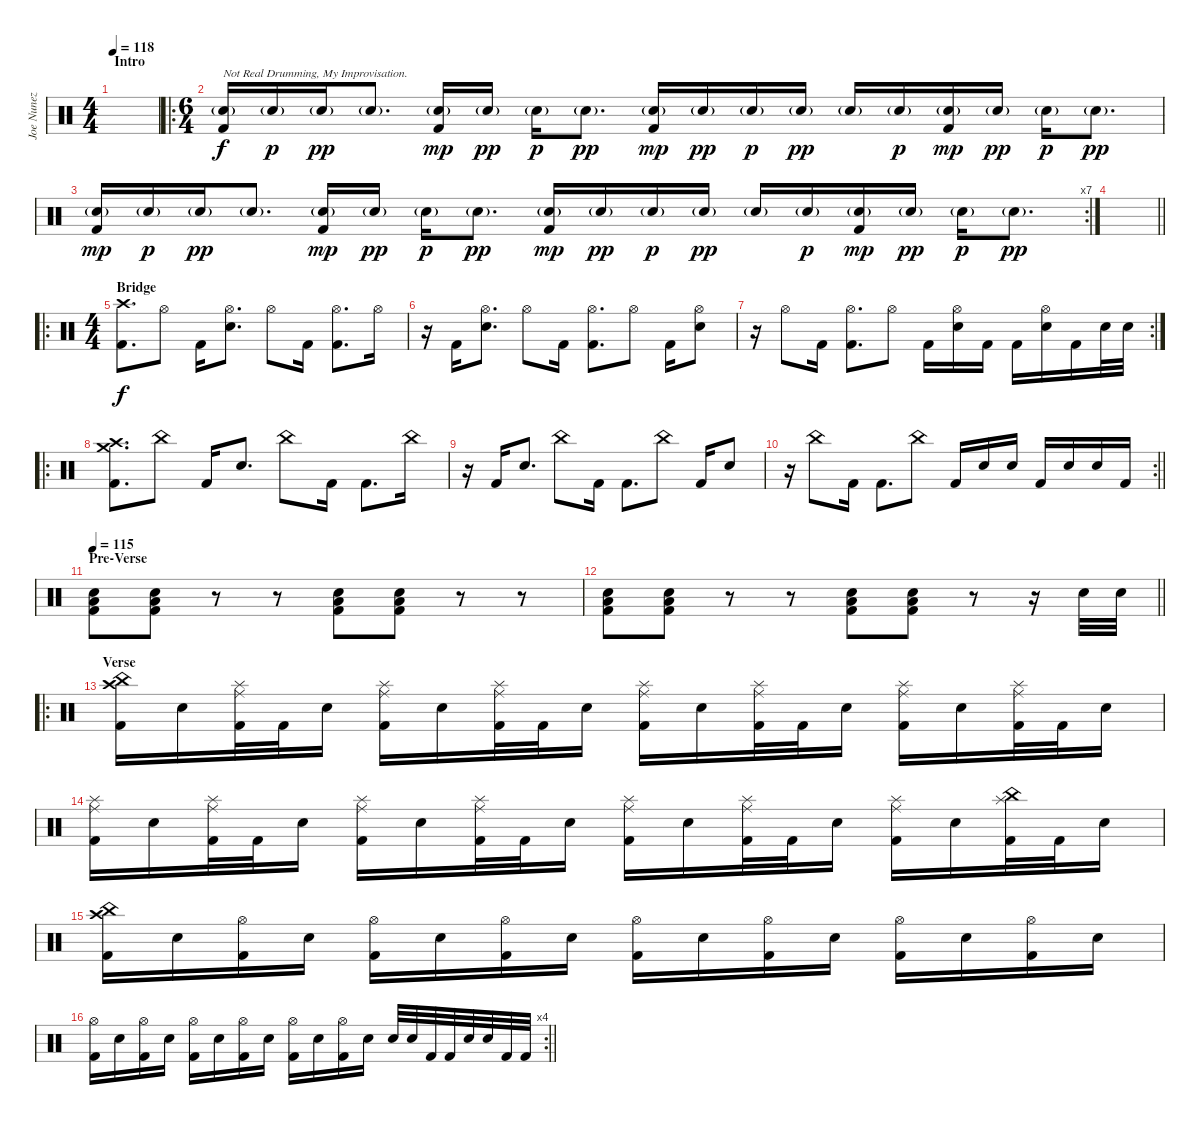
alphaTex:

\track ("Joe Nunez" "Joe Nunez") {instrument percussion}
\staff {score}
\articulation defaults
\ts (4 4)
\section ("" "Intro")
\tempo 118
\clef neutral
\ks c
|
\ro
\ts (6 4)
("Electric Snare (hit)"{g} "Kick (hit) 2").16{txt "Not Real Drumming, My Improvisation." volume 16} "Electric Snare (hit)"{g}.16{dy p} "Electric Snare (hit)"{g}.16{dy pp} "Electric Snare (hit)"{g}.8{d} ("Electric Snare (hit)"{g} "Kick (hit) 2").16{dy mp} "Electric Snare (hit)"{g}.16{dy pp} "Electric Snare (hit)"{g}.16{dy p} "Electric Snare (hit)"{g}.8{d dy pp} ("Electric Snare (hit)"{g} "Kick (hit) 2").16{dy mp} "Electric Snare (hit)"{g}.16{dy pp} "Electric Snare (hit)"{g}.16{dy p} "Electric Snare (hit)"{g}.16{dy pp} "Electric Snare (hit)"{g}.16 "Electric Snare (hit)"{g}.16{dy p} ("Electric Snare (hit)"{g} "Kick (hit) 2").16{dy mp} "Electric Snare (hit)"{g}.16{dy pp} "Electric Snare (hit)"{g}.16{dy p} "Electric Snare (hit)"{g}.8{d dy pp} |
\rc 7
("Electric Snare (hit)"{g} "Kick (hit) 2").16{dy mp} "Electric Snare (hit)"{g}.16{dy p} "Electric Snare (hit)"{g}.16{dy pp} "Electric Snare (hit)"{g}.8{d} ("Electric Snare (hit)"{g} "Kick (hit) 2").16{dy mp} "Electric Snare (hit)"{g}.16{dy pp} "Electric Snare (hit)"{g}.16{dy p} "Electric Snare (hit)"{g}.8{d dy pp} ("Electric Snare (hit)"{g} "Kick (hit) 2").16{dy mp} "Electric Snare (hit)"{g}.16{dy pp} "Electric Snare (hit)"{g}.16{dy p} "Electric Snare (hit)"{g}.16{dy pp} "Electric Snare (hit)"{g}.16 "Electric Snare (hit)"{g}.16{dy p} ("Electric Snare (hit)"{g} "Kick (hit) 2").16{dy mp} "Electric Snare (hit)"{g}.16{dy pp} "Electric Snare (hit)"{g}.16{dy p} "Electric Snare (hit)"{g}.8{d dy pp} |
\barLineRight lightlight
|
\ro
\ts (4 4)
\section ("" "Bridge")
("Crash high (hit)" "Kick (hit) 2").8{d dy f} "Hi-Hat (open)".8 "Kick (hit) 2".16 ("Hi-Hat (open)" "Electric Snare (hit)").8{d} "Hi-Hat (open)".8 "Kick (hit) 2".16 ("Hi-Hat (open)" "Kick (hit) 2").8{d} "Hi-Hat (open)".16 |
r.16 "Kick (hit) 2".16 ("Hi-Hat (open)" "Electric Snare (hit)").8{d} "Hi-Hat (open)".8 "Kick (hit) 2".16 ("Hi-Hat (open)" "Kick (hit) 2").8{d} "Hi-Hat (open)".8 "Kick (hit) 2".16 ("Hi-Hat (open)" "Electric Snare (hit)").8 |
\rc 2
r.16 "Hi-Hat (open)".8 "Kick (hit) 2".16 ("Hi-Hat (open)" "Kick (hit) 2").8{d} "Hi-Hat (open)".8 "Kick (hit) 2".16 ("Hi-Hat (open)" "Electric Snare (hit)").16 "Kick (hit) 2".16 "Kick (hit) 2".16 ("Hi-Hat (open)" "Electric Snare (hit)").16 "Kick (hit) 2".16 "Electric Snare (hit)".32 "Electric Snare (hit)".32 |
\ro
("Crash high (hit)" "Crash medium (hit)" "Kick (hit) 2").8{d} "China (hit)".8 "Kick (hit) 2".16 "Electric Snare (hit)".8{d} "China (hit)".8 "Kick (hit) 2".16 "Kick (hit) 2".8{d} "China (hit)".16 |
r.16 "Kick (hit) 2".16 "Electric Snare (hit)".8{d} "China (hit)".8 "Kick (hit) 2".16 "Kick (hit) 2".8{d} "China (hit)".8 "Kick (hit) 2".16 "Electric Snare (hit)".8 |
\rc 2
\barLineRight lightlight
r.16 "China (hit)".8 "Kick (hit) 2".16 "Kick (hit) 2".8{d} "China (hit)".8 "Kick (hit) 2".16 "Electric Snare (hit)".16 "Electric Snare (hit)".16 "Kick (hit) 2".16 "Electric Snare (hit)".16 "Electric Snare (hit)".16 "Kick (hit) 2".16 |
\section ("" "Pre-Verse")
\tempo 115
("Low Floor Tom (hit)" "Electric Snare (hit)" "Kick (hit) 2").8 ("Low Floor Tom (hit)" "Electric Snare (hit)" "Kick (hit) 2").8 r.8 r.8 ("Low Floor Tom (hit)" "Electric Snare (hit)" "Kick (hit) 2").8 ("Low Floor Tom (hit)" "Electric Snare (hit)" "Kick (hit) 2").8 r.8 r.8 |
\barLineRight lightlight
("Low Floor Tom (hit)" "Electric Snare (hit)" "Kick (hit) 2").8 ("Low Floor Tom (hit)" "Electric Snare (hit)" "Kick (hit) 2").8 r.8 r.8 ("Low Floor Tom (hit)" "Electric Snare (hit)" "Kick (hit) 2").8 ("Low Floor Tom (hit)" "Electric Snare (hit)" "Kick (hit) 2").8 r.8 r.16 "Electric Snare (hit)".32 "Electric Snare (hit)".32 |
\ro
\section ("" "Verse")
("Crash high (hit)" "China (hit)" "Kick (hit) 2").16 "Electric Snare (hit)".16 ("Splash (hit)" "Ride (middle)" "Kick (hit) 2").32 "Kick (hit) 2".32 "Electric Snare (hit)".16 ("Splash (hit)" "Ride (middle)" "Kick (hit) 2").16 "Electric Snare (hit)".16 ("Splash (hit)" "Ride (middle)" "Kick (hit) 2").32 "Kick (hit) 2".32 "Electric Snare (hit)".16 ("Splash (hit)" "Ride (middle)" "Kick (hit) 2").16 "Electric Snare (hit)".16 ("Splash (hit)" "Ride (middle)" "Kick (hit) 2").32 "Kick (hit) 2".32 "Electric Snare (hit)".16 ("Splash (hit)" "Ride (middle)" "Kick (hit) 2").16 "Electric Snare (hit)".16 ("Splash (hit)" "Ride (middle)" "Kick (hit) 2").32 "Kick (hit) 2".32 "Electric Snare (hit)".16 |
("Splash (hit)" "Ride (middle)" "Kick (hit) 2").16 "Electric Snare (hit)".16 ("Splash (hit)" "Ride (middle)" "Kick (hit) 2").32 "Kick (hit) 2".32 "Electric Snare (hit)".16 ("Splash (hit)" "Ride (middle)" "Kick (hit) 2").16 "Electric Snare (hit)".16 ("Splash (hit)" "Ride (middle)" "Kick (hit) 2").32 "Kick (hit) 2".32 "Electric Snare (hit)".16 ("Splash (hit)" "Ride (middle)" "Kick (hit) 2").16 "Electric Snare (hit)".16 ("Splash (hit)" "Ride (middle)" "Kick (hit) 2").32 "Kick (hit) 2".32 "Electric Snare (hit)".16 ("Splash (hit)" "Ride (middle)" "Kick (hit) 2").16 "Electric Snare (hit)".16 ("China (hit)" "Splash (hit)" "Kick (hit) 2").32 "Kick (hit) 2".32 "Electric Snare (hit)".16 |
("China (hit)" "Crash high (hit)" "Kick (hit) 2").16 "Electric Snare (hit)".16 ("Hi-Hat (open)" "Kick (hit) 2").16 "Electric Snare (hit)".16 ("Hi-Hat (open)" "Kick (hit) 2").16 "Electric Snare (hit)".16 ("Hi-Hat (open)" "Kick (hit) 2").16 "Electric Snare (hit)".16 ("Hi-Hat (open)" "Kick (hit) 2").16 "Electric Snare (hit)".16 ("Hi-Hat (open)" "Kick (hit) 2").16 "Electric Snare (hit)".16 ("Hi-Hat (open)" "Kick (hit) 2").16 "Electric Snare (hit)".16 ("Hi-Hat (open)" "Kick (hit) 2").16 "Electric Snare (hit)".16 |
\rc 4
\barLineRight lightlight
("Hi-Hat (open)" "Kick (hit) 2").16 "Electric Snare (hit)".16 ("Hi-Hat (open)" "Kick (hit) 2").16 "Electric Snare (hit)".16 ("Hi-Hat (open)" "Kick (hit) 2").16 "Electric Snare (hit)".16 ("Hi-Hat (open)" "Kick (hit) 2").16 "Electric Snare (hit)".16 ("Hi-Hat (open)" "Kick (hit) 2").16 "Electric Snare (hit)".16 ("Hi-Hat (open)" "Kick (hit) 2").16 "Electric Snare (hit)".16 "Electric Snare (hit)".32 "Electric Snare (hit)".32 "Kick (hit) 2".32 "Kick (hit) 2".32 "Electric Snare (hit)".32 "Electric Snare (hit)".32 "Kick (hit) 2".32 "Kick (hit) 2".32
